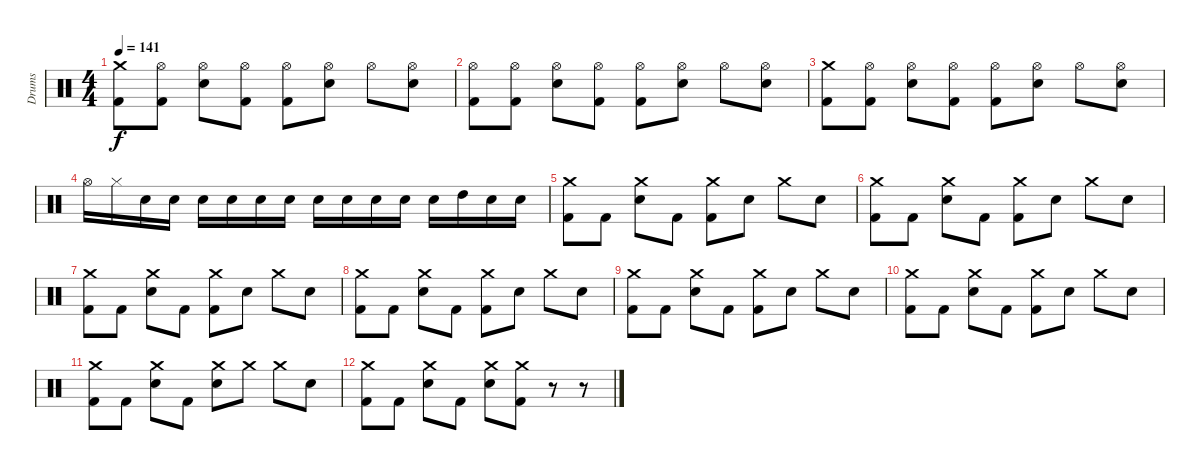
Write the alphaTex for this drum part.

\track ("Drums" "Drums") {instrument percussion}
\staff {score}
\articulation defaults
\ts (4 4)
\tempo 141
\clef neutral
\ks c
("Crash medium (hit)" "Kick (hit) 2").8{dy f} ("Hi-Hat (open)" "Kick (hit) 2").8 ("Hi-Hat (open)" "Electric Snare (hit)").8 ("Hi-Hat (open)" "Kick (hit) 2").8 ("Hi-Hat (open)" "Kick (hit) 2").8 ("Hi-Hat (open)" "Electric Snare (hit)").8 "Hi-Hat (open)".8 ("Hi-Hat (open)" "Electric Snare (hit)").8 |
("Hi-Hat (open)" "Kick (hit) 2").8 ("Hi-Hat (open)" "Kick (hit) 2").8 ("Hi-Hat (open)" "Electric Snare (hit)").8 ("Hi-Hat (open)" "Kick (hit) 2").8 ("Hi-Hat (open)" "Kick (hit) 2").8 ("Hi-Hat (open)" "Electric Snare (hit)").8 "Hi-Hat (open)".8 ("Hi-Hat (open)" "Electric Snare (hit)").8 |
("Crash medium (hit)" "Kick (hit) 2").8 ("Hi-Hat (open)" "Kick (hit) 2").8 ("Hi-Hat (open)" "Electric Snare (hit)").8 ("Hi-Hat (open)" "Kick (hit) 2").8 ("Hi-Hat (open)" "Kick (hit) 2").8 ("Hi-Hat (open)" "Electric Snare (hit)").8 "Hi-Hat (open)".8 ("Hi-Hat (open)" "Electric Snare (hit)").8 |
"Hi-Hat (open)".16 "Hi-Hat (closed)".16 "Electric Snare (hit)".16 "Electric Snare (hit)".16 "Electric Snare (hit)".16 "Electric Snare (hit)".16 "Electric Snare (hit)".16 "Electric Snare (hit)".16 "Electric Snare (hit)".16 "Electric Snare (hit)".16 "Electric Snare (hit)".16 "Electric Snare (hit)".16 "Electric Snare (hit)".16 "High Tom (hit)".16 "Electric Snare (hit)".16 "Electric Snare (hit)".16 |
("Crash medium (hit)" "Kick (hit) 2").8 "Kick (hit) 2".8 ("Crash medium (hit)" "Electric Snare (hit)").8 "Kick (hit) 2".8 ("Crash medium (hit)" "Kick (hit) 2").8 "Electric Snare (hit)".8 "Crash medium (hit)".8 "Electric Snare (hit)".8 |
("Crash medium (hit)" "Kick (hit) 2").8 "Kick (hit) 2".8 ("Crash medium (hit)" "Electric Snare (hit)").8 "Kick (hit) 2".8 ("Crash medium (hit)" "Kick (hit) 2").8 "Electric Snare (hit)".8 "Crash medium (hit)".8 "Electric Snare (hit)".8 |
("Crash medium (hit)" "Kick (hit) 2").8 "Kick (hit) 2".8 ("Crash medium (hit)" "Electric Snare (hit)").8 "Kick (hit) 2".8 ("Crash medium (hit)" "Kick (hit) 2").8 "Electric Snare (hit)".8 "Crash medium (hit)".8 "Electric Snare (hit)".8 |
("Crash medium (hit)" "Kick (hit) 2").8 "Kick (hit) 2".8 ("Crash medium (hit)" "Electric Snare (hit)").8 "Kick (hit) 2".8 ("Crash medium (hit)" "Kick (hit) 2").8 "Electric Snare (hit)".8 "Crash medium (hit)".8 "Electric Snare (hit)".8 |
("Crash medium (hit)" "Kick (hit) 2").8 "Kick (hit) 2".8 ("Crash medium (hit)" "Electric Snare (hit)").8 "Kick (hit) 2".8 ("Crash medium (hit)" "Kick (hit) 2").8 "Electric Snare (hit)".8 "Crash medium (hit)".8 "Electric Snare (hit)".8 |
("Crash medium (hit)" "Kick (hit) 2").8 "Kick (hit) 2".8 ("Crash medium (hit)" "Electric Snare (hit)").8 "Kick (hit) 2".8 ("Crash medium (hit)" "Kick (hit) 2").8 "Electric Snare (hit)".8 "Crash medium (hit)".8 "Electric Snare (hit)".8 |
("Crash medium (hit)" "Kick (hit) 2").8 "Kick (hit) 2".8 ("Crash medium (hit)" "Electric Snare (hit)").8 "Kick (hit) 2".8 ("Crash medium (hit)" "Electric Snare (hit)").8 "Crash medium (hit)".8 "Crash medium (hit)".8 "Electric Snare (hit)".8 |
("Crash medium (hit)" "Kick (hit) 2").8 "Kick (hit) 2".8 ("Crash medium (hit)" "Electric Snare (hit)").8 "Kick (hit) 2".8 ("Crash medium (hit)" "Electric Snare (hit)").8 ("Crash medium (hit)" "Kick (hit) 2").8 r.8 r.8
